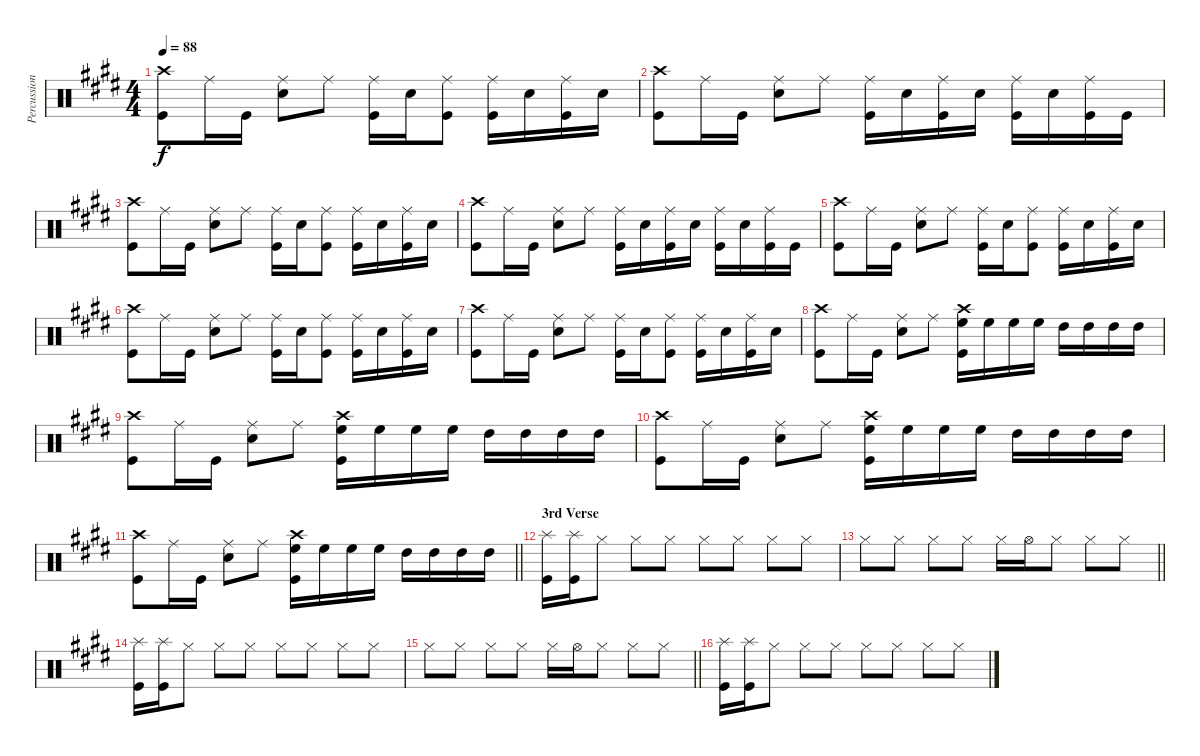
\track ("Percussion" "Percussion") {instrument percussion}
\staff {score}
\articulation defaults
\ts (4 4)
\tempo 88
\clef neutral
\ks e
("Crash high (hit)" "Kick (hit)").8{dy f} "Ride (middle)".16 "Kick (hit)".16 ("Ride (middle)" "Snare (hit) 2").8 "Ride (middle)".8 ("Ride (middle)" "Kick (hit)").16 "Snare (hit) 2".16 ("Ride (middle)" "Kick (hit)").8 ("Ride (middle)" "Kick (hit)").16 "Snare (hit) 2".16 ("Ride (middle)" "Kick (hit)").16 "Snare (hit) 2".16 |
("Crash high (hit)" "Kick (hit)").8 "Ride (middle)".16 "Kick (hit)".16 ("Ride (middle)" "Snare (hit) 2").8 "Ride (middle)".8 ("Ride (middle)" "Kick (hit)").16 "Snare (hit) 2".16 ("Ride (middle)" "Kick (hit)").16 "Snare (hit) 2".16 ("Ride (middle)" "Kick (hit)").16 "Snare (hit) 2".16 ("Ride (middle)" "Kick (hit)").16 "Kick (hit)".16 |
("Crash high (hit)" "Kick (hit)").8 "Ride (middle)".16 "Kick (hit)".16 ("Ride (middle)" "Snare (hit) 2").8 "Ride (middle)".8 ("Ride (middle)" "Kick (hit)").16 "Snare (hit) 2".16 ("Ride (middle)" "Kick (hit)").8 ("Ride (middle)" "Kick (hit)").16 "Snare (hit) 2".16 ("Ride (middle)" "Kick (hit)").16 "Snare (hit) 2".16 |
("Crash high (hit)" "Kick (hit)").8 "Ride (middle)".16 "Kick (hit)".16 ("Ride (middle)" "Snare (hit) 2").8 "Ride (middle)".8 ("Ride (middle)" "Kick (hit)").16 "Snare (hit) 2".16 ("Ride (middle)" "Kick (hit)").16 "Snare (hit) 2".16 ("Ride (middle)" "Kick (hit)").16 "Snare (hit) 2".16 ("Ride (middle)" "Kick (hit)").16 "Kick (hit)".16 |
("Crash high (hit)" "Kick (hit)").8 "Ride (middle)".16 "Kick (hit)".16 ("Ride (middle)" "Snare (hit) 2").8 "Ride (middle)".8 ("Ride (middle)" "Kick (hit)").16 "Snare (hit) 2".16 ("Ride (middle)" "Kick (hit)").8 ("Ride (middle)" "Kick (hit)").16 "Snare (hit) 2".16 ("Ride (middle)" "Kick (hit)").16 "Snare (hit) 2".16 |
("Crash high (hit)" "Kick (hit)").8 "Ride (middle)".16 "Kick (hit)".16 ("Ride (middle)" "Snare (hit) 2").8 "Ride (middle)".8 ("Ride (middle)" "Kick (hit)").16 "Snare (hit) 2".16 ("Ride (middle)" "Kick (hit)").8 ("Ride (middle)" "Kick (hit)").16 "Snare (hit) 2".16 ("Ride (middle)" "Kick (hit)").16 "Snare (hit) 2".16 |
("Crash high (hit)" "Kick (hit)").8 "Ride (middle)".16 "Kick (hit)".16 ("Ride (middle)" "Snare (hit) 2").8 "Ride (middle)".8 ("Ride (middle)" "Kick (hit)").16 "Snare (hit) 2".16 ("Ride (middle)" "Kick (hit)").8 ("Ride (middle)" "Kick (hit)").16 "Snare (hit) 2".16 ("Ride (middle)" "Kick (hit)").16 "Snare (hit) 2".16 |
("Crash high (hit)" "Kick (hit)").8 "Ride (middle)".16 "Kick (hit)".16 ("Ride (middle)" "Snare (hit) 2").8 "Ride (middle)".8 ("Crash high (hit)" "High Floor Tom (hit)" "Kick (hit)").16 "High Floor Tom (hit)".16 "High Floor Tom (hit)".16 "High Floor Tom (hit)".16 "High Tom (hit)".16 "High Tom (hit)".16 "High Tom (hit)".16 "High Tom (hit)".16 |
("Crash high (hit)" "Kick (hit)").8 "Ride (middle)".16 "Kick (hit)".16 ("Ride (middle)" "Snare (hit) 2").8 "Ride (middle)".8 ("Crash high (hit)" "High Floor Tom (hit)" "Kick (hit)").16 "High Floor Tom (hit)".16 "High Floor Tom (hit)".16 "High Floor Tom (hit)".16 "High Tom (hit)".16 "High Tom (hit)".16 "High Tom (hit)".16 "High Tom (hit)".16 |
("Crash high (hit)" "Kick (hit)").8 "Ride (middle)".16 "Kick (hit)".16 ("Ride (middle)" "Snare (hit) 2").8 "Ride (middle)".8 ("Crash high (hit)" "High Floor Tom (hit)" "Kick (hit)").16 "High Floor Tom (hit)".16 "High Floor Tom (hit)".16 "High Floor Tom (hit)".16 "High Tom (hit)".16 "High Tom (hit)".16 "High Tom (hit)".16 "High Tom (hit)".16 |
\barLineRight lightlight
("Crash high (hit)" "Kick (hit)").8 "Ride (middle)".16 "Kick (hit)".16 ("Ride (middle)" "Snare (hit) 2").8 "Ride (middle)".8 ("Crash high (hit)" "High Floor Tom (hit)" "Kick (hit)").16 "High Floor Tom (hit)".16 "High Floor Tom (hit)".16 "High Floor Tom (hit)".16 "High Tom (hit)".16 "High Tom (hit)".16 "High Tom (hit)".16 "High Tom (hit)".16 |
\section ("" "3rd Verse")
("Splash (hit)" "Kick (hit)").16 ("Splash (hit)" "Kick (hit)").16 "Hi-Hat (closed)".8 "Hi-Hat (closed)".8 "Hi-Hat (closed)".8 "Hi-Hat (closed)".8 "Hi-Hat (closed)".8 "Hi-Hat (closed)".8 "Hi-Hat (closed)".8 |
\barLineRight lightlight "Hi-Hat (closed)".8 "Hi-Hat (closed)".8 "Hi-Hat (closed)".8 "Hi-Hat (closed)".8 "Hi-Hat (closed)".16 "Hi-Hat (open)".16 "Hi-Hat (closed)".8 "Hi-Hat (closed)".8 "Hi-Hat (closed)".8
|
("Splash (hit)" "Kick (hit)").16 ("Splash (hit)" "Kick (hit)").16 "Hi-Hat (closed)".8 "Hi-Hat (closed)".8 "Hi-Hat (closed)".8 "Hi-Hat (closed)".8 "Hi-Hat (closed)".8 "Hi-Hat (closed)".8 "Hi-Hat (closed)".8 |
\barLineRight lightlight "Hi-Hat (closed)".8 "Hi-Hat (closed)".8 "Hi-Hat (closed)".8 "Hi-Hat (closed)".8 "Hi-Hat (closed)".16 "Hi-Hat (open)".16 "Hi-Hat (closed)".8 "Hi-Hat (closed)".8 "Hi-Hat (closed)".8
|
("Splash (hit)" "Kick (hit)").16 ("Splash (hit)" "Kick (hit)").16 "Hi-Hat (closed)".8 "Hi-Hat (closed)".8 "Hi-Hat (closed)".8 "Hi-Hat (closed)".8 "Hi-Hat (closed)".8 "Hi-Hat (closed)".8 "Hi-Hat (closed)".8
